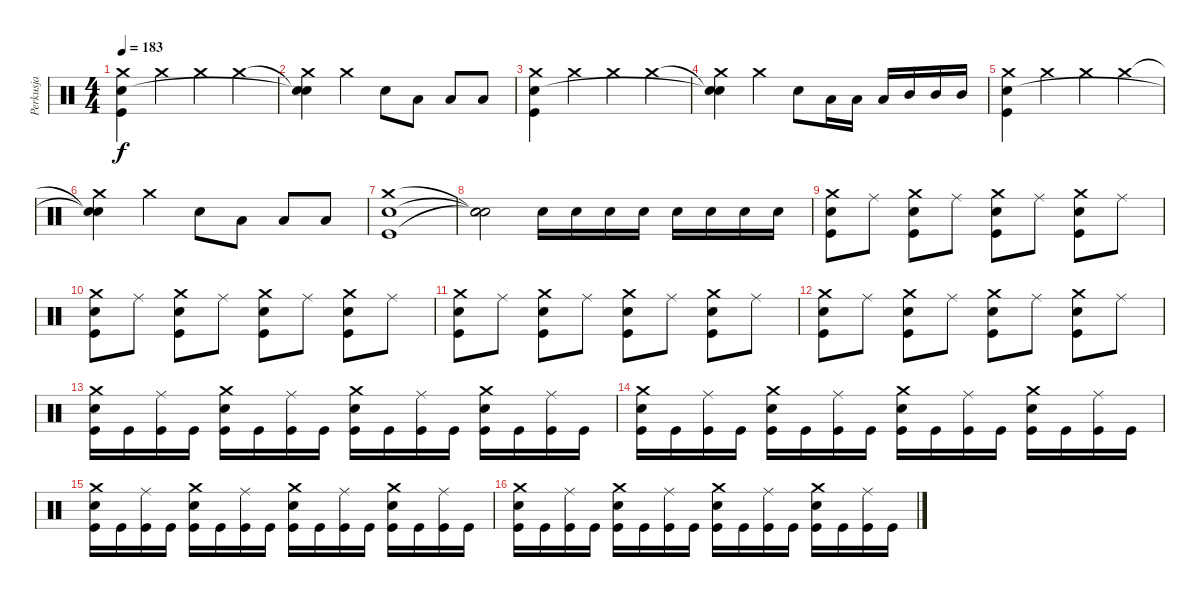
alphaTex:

\track ("Perkusja" "Perkusja") {instrument percussion}
\staff {score}
\articulation defaults
\ts (4 4)
\tempo 183
\clef neutral
\ks c
("Kick (hit)" "Snare (hit) 2" "Crash medium (hit)").4{dy f} "Crash medium (hit)".4 "Crash medium (hit)".4 "Crash medium (hit)".4 |
("Snare (hit)"{t} "Snare (hit)"{t} "Crash medium (hit)").4 "Crash medium (hit)".4 "Snare (hit) 2".8 "Low Tom (hit)".8 "Low Tom (hit)".8 "Low Tom (hit)".8 |
("Kick (hit)" "Snare (hit) 2" "Crash medium (hit)").4 "Crash medium (hit)".4 "Crash medium (hit)".4 "Crash medium (hit)".4 |
("Snare (hit)"{t} "Snare (hit)"{t} "Crash medium (hit)").4 "Crash medium (hit)".4 "Snare (hit) 2".8 "Low Tom (hit)".16 "Low Tom (hit)".16 "Low Tom (hit)".16 "Mid Tom (hit)".16 "Mid Tom (hit)".16 "Mid Tom (hit)".16 |
("Kick (hit)" "Snare (hit) 2" "Crash medium (hit)").4 "Crash medium (hit)".4 "Crash medium (hit)".4 "Crash medium (hit)".4 |
("Snare (hit)"{t} "Snare (hit)"{t} "Crash medium (hit)").4 "Crash medium (hit)".4 "Snare (hit) 2".8 "Low Tom (hit)".8 "Low Tom (hit)".8 "Low Tom (hit)".8 |
("Kick (hit)" "Snare (hit) 2" "Crash medium (hit)").1 |
("Snare (hit)"{t} "Snare (hit)"{t} "Snare (hit)"{t}).2 "Snare (hit) 2".16 "Snare (hit) 2".16 "Snare (hit) 2".16 "Snare (hit) 2".16 "Snare (hit) 2".16 "Snare (hit) 2".16 "Snare (hit) 2".16 "Snare (hit) 2".16 |
("Kick (hit)" "Snare (hit) 2" "Crash medium (hit)").8 "Ride (middle)".8 ("Kick (hit)" "Snare (hit) 2" "Crash medium (hit)").8 "Ride (middle)".8 ("Kick (hit)" "Snare (hit) 2" "Crash medium (hit)").8 "Ride (middle)".8 ("Kick (hit)" "Snare (hit) 2" "Crash medium (hit)").8 "Ride (middle)".8 |
("Kick (hit)" "Snare (hit) 2" "Crash medium (hit)").8 "Ride (middle)".8 ("Kick (hit)" "Snare (hit) 2" "Crash medium (hit)").8 "Ride (middle)".8 ("Kick (hit)" "Snare (hit) 2" "Crash medium (hit)").8 "Ride (middle)".8 ("Kick (hit)" "Snare (hit) 2" "Crash medium (hit)").8 "Ride (middle)".8 |
("Kick (hit)" "Snare (hit) 2" "Crash medium (hit)").8 "Ride (middle)".8 ("Kick (hit)" "Snare (hit) 2" "Crash medium (hit)").8 "Ride (middle)".8 ("Kick (hit)" "Snare (hit) 2" "Crash medium (hit)").8 "Ride (middle)".8 ("Kick (hit)" "Snare (hit) 2" "Crash medium (hit)").8 "Ride (middle)".8 |
("Kick (hit)" "Snare (hit) 2" "Crash medium (hit)").8 "Ride (middle)".8 ("Kick (hit)" "Snare (hit) 2" "Crash medium (hit)").8 "Ride (middle)".8 ("Kick (hit)" "Snare (hit) 2" "Crash medium (hit)").8 "Ride (middle)".8 ("Kick (hit)" "Snare (hit) 2" "Crash medium (hit)").8 "Ride (middle)".8 |
("Kick (hit)" "Snare (hit) 2" "Crash medium (hit)").16 "Kick (hit)".16 ("Kick (hit)" "Ride (middle)").16 "Kick (hit)".16 ("Kick (hit)" "Crash medium (hit)" "Snare (hit) 2").16 "Kick (hit)".16 ("Kick (hit)" "Ride (middle)").16 "Kick (hit)".16 ("Kick (hit)" "Crash medium (hit)" "Snare (hit) 2").16 "Kick (hit)".16 ("Kick (hit)" "Ride (middle)").16 "Kick (hit)".16 ("Kick (hit)" "Crash medium (hit)" "Snare (hit) 2").16 "Kick (hit)".16 ("Kick (hit)" "Ride (middle)").16 "Kick (hit)".16 |
("Kick (hit)" "Snare (hit) 2" "Crash medium (hit)").16 "Kick (hit)".16 ("Kick (hit)" "Ride (middle)").16 "Kick (hit)".16 ("Kick (hit)" "Crash medium (hit)" "Snare (hit) 2").16 "Kick (hit)".16 ("Kick (hit)" "Ride (middle)").16 "Kick (hit)".16 ("Kick (hit)" "Crash medium (hit)" "Snare (hit) 2").16 "Kick (hit)".16 ("Kick (hit)" "Ride (middle)").16 "Kick (hit)".16 ("Kick (hit)" "Crash medium (hit)" "Snare (hit) 2").16 "Kick (hit)".16 ("Kick (hit)" "Ride (middle)").16 "Kick (hit)".16 |
("Kick (hit)" "Snare (hit) 2" "Crash medium (hit)").16 "Kick (hit)".16 ("Kick (hit)" "Ride (middle)").16 "Kick (hit)".16 ("Kick (hit)" "Crash medium (hit)" "Snare (hit) 2").16 "Kick (hit)".16 ("Kick (hit)" "Ride (middle)").16 "Kick (hit)".16 ("Kick (hit)" "Crash medium (hit)" "Snare (hit) 2").16 "Kick (hit)".16 ("Kick (hit)" "Ride (middle)").16 "Kick (hit)".16 ("Kick (hit)" "Crash medium (hit)" "Snare (hit) 2").16 "Kick (hit)".16 ("Kick (hit)" "Ride (middle)").16 "Kick (hit)".16 |
("Kick (hit)" "Snare (hit) 2" "Crash medium (hit)").16 "Kick (hit)".16 ("Kick (hit)" "Ride (middle)").16 "Kick (hit)".16 ("Kick (hit)" "Crash medium (hit)" "Snare (hit) 2").16 "Kick (hit)".16 ("Kick (hit)" "Ride (middle)").16 "Kick (hit)".16 ("Kick (hit)" "Crash medium (hit)" "Snare (hit) 2").16 "Kick (hit)".16 ("Kick (hit)" "Ride (middle)").16 "Kick (hit)".16 ("Kick (hit)" "Crash medium (hit)" "Snare (hit) 2").16 "Kick (hit)".16 ("Kick (hit)" "Ride (middle)").16 "Kick (hit)".16
